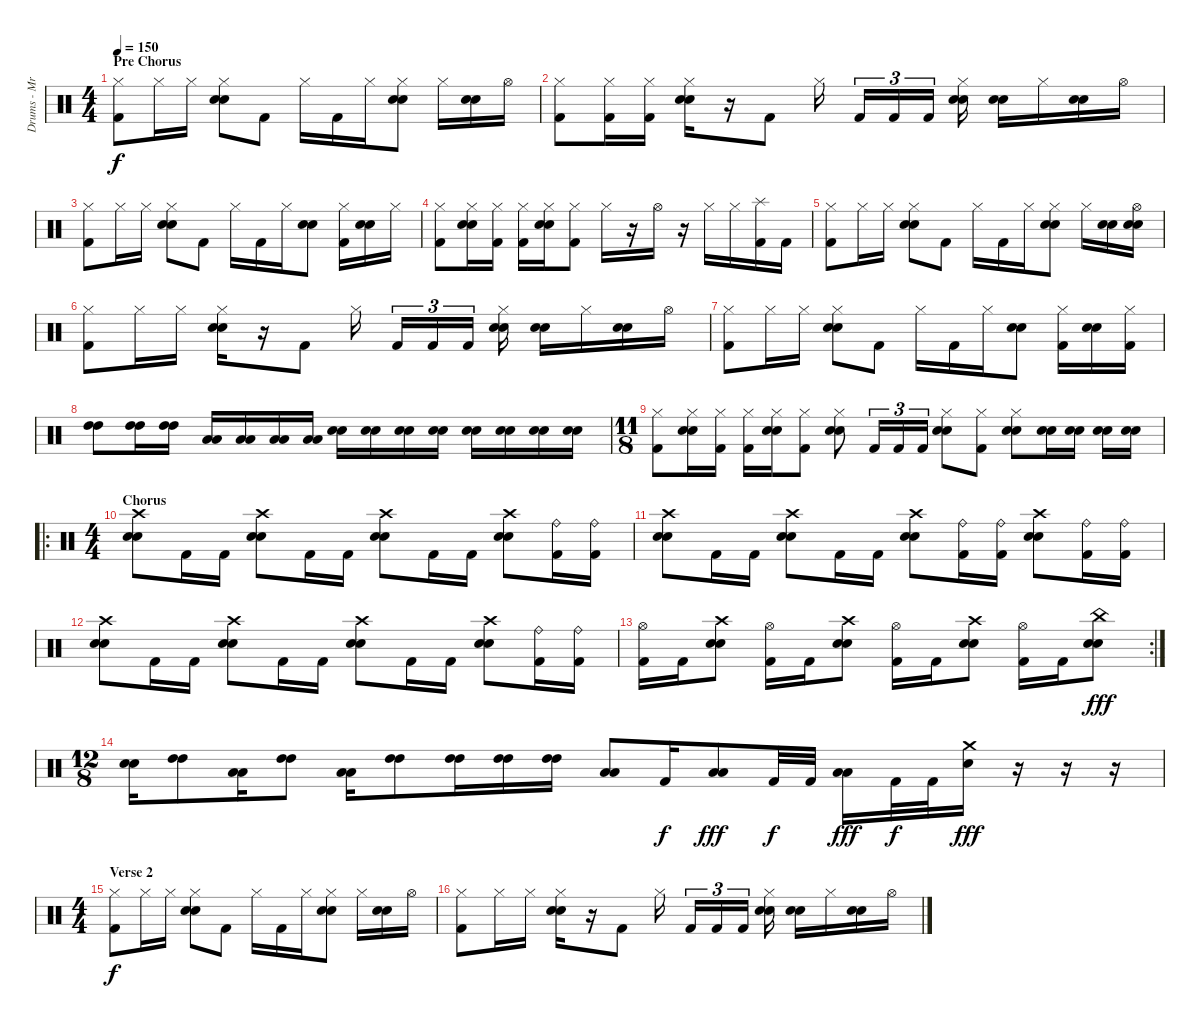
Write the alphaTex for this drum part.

\track ("Drums - Mr. Beller, Thomas" "Drums - Mr") {instrument percussion}
\staff {score}
\articulation defaults
\ts (4 4)
\section ("" "Pre Chorus")
\tempo 150
\clef neutral
\ks c
("Hi-Hat (closed)" "Kick (hit) 2").8{dy f} "Hi-Hat (closed)".16 "Hi-Hat (closed)".16 ("Hi-Hat (closed)" "Electric Snare (hit)" "Electric Snare (hit)").8 "Kick (hit) 2".8 "Hi-Hat (closed)".16 "Kick (hit) 2".16 "Hi-Hat (closed)".16 ("Hi-Hat (closed)" "Electric Snare (hit)" "Electric Snare (hit)").8 "Hi-Hat (closed)".16 ("Electric Snare (hit)" "Electric Snare (hit)").16 "Hi-Hat (open)".16 |
("Hi-Hat (closed)" "Kick (hit) 2").8 ("Hi-Hat (closed)" "Kick (hit) 2").16 ("Hi-Hat (closed)" "Kick (hit) 2").16 ("Hi-Hat (closed)" "Electric Snare (hit)" "Electric Snare (hit)").16 r.16 "Kick (hit) 2".8 "Hi-Hat (closed)".16 "Kick (hit) 2".16{tu (3 2)} "Kick (hit) 2".16{tu (3 2)} "Kick (hit) 2".16{tu (3 2)} ("Hi-Hat (closed)" "Electric Snare (hit)" "Electric Snare (hit)").16 ("Electric Snare (hit)" "Electric Snare (hit)").16 "Hi-Hat (closed)".16 ("Electric Snare (hit)" "Electric Snare (hit)").16 "Hi-Hat (open)".16 |
("Hi-Hat (closed)" "Kick (hit) 2").8 "Hi-Hat (closed)".16 "Hi-Hat (closed)".16 ("Hi-Hat (closed)" "Electric Snare (hit)" "Electric Snare (hit)").8 "Kick (hit) 2".8 "Hi-Hat (closed)".16 "Kick (hit) 2".16 "Hi-Hat (closed)".16 ("Electric Snare (hit)" "Electric Snare (hit)").8 ("Hi-Hat (closed)" "Kick (hit) 2").16 ("Electric Snare (hit)" "Electric Snare (hit)").16 "Hi-Hat (closed)".16 |
("Hi-Hat (closed)" "Kick (hit) 2").8 ("Hi-Hat (closed)" "Electric Snare (hit)" "Electric Snare (hit)").16 ("Hi-Hat (closed)" "Kick (hit) 2").16 ("Hi-Hat (closed)" "Kick (hit) 2").16 ("Hi-Hat (closed)" "Electric Snare (hit)" "Electric Snare (hit)").16 ("Hi-Hat (closed)" "Kick (hit) 2").8 "Hi-Hat (closed)".16 r.16 "Hi-Hat (open)".16 r.16 "Hi-Hat (closed)".16 "Hi-Hat (closed)".16 ("Splash (hit)" "Kick (hit) 2").16 "Kick (hit) 2".16 |
("Hi-Hat (closed)" "Kick (hit) 2").8 "Hi-Hat (closed)".16 "Hi-Hat (closed)".16 ("Hi-Hat (closed)" "Electric Snare (hit)" "Electric Snare (hit)").8 "Kick (hit) 2".8 "Hi-Hat (closed)".16 "Kick (hit) 2".16 "Hi-Hat (closed)".16 ("Hi-Hat (closed)" "Electric Snare (hit)" "Electric Snare (hit)").8 "Hi-Hat (closed)".16 ("Electric Snare (hit)" "Electric Snare (hit)").16 ("Hi-Hat (open)" "Electric Snare (hit)" "Electric Snare (hit)").16 |
("Hi-Hat (closed)" "Kick (hit) 2").8 "Hi-Hat (closed)".16 "Hi-Hat (closed)".16 ("Hi-Hat (closed)" "Electric Snare (hit)" "Electric Snare (hit)").16 r.16 "Kick (hit) 2".8 "Hi-Hat (closed)".16 "Kick (hit) 2".16{tu (3 2)} "Kick (hit) 2".16{tu (3 2)} "Kick (hit) 2".16{tu (3 2)} ("Hi-Hat (closed)" "Electric Snare (hit)" "Electric Snare (hit)").16 ("Electric Snare (hit)" "Electric Snare (hit)").16 "Hi-Hat (closed)".16 ("Electric Snare (hit)" "Electric Snare (hit)").16 "Hi-Hat (open)".16 |
("Hi-Hat (closed)" "Kick (hit) 2").8 "Hi-Hat (closed)".16 "Hi-Hat (closed)".16 ("Hi-Hat (closed)" "Electric Snare (hit)" "Electric Snare (hit)").8 "Kick (hit) 2".8 "Hi-Hat (closed)".16 "Kick (hit) 2".16 "Hi-Hat (closed)".16 ("Electric Snare (hit)" "Electric Snare (hit)").8 ("Hi-Hat (closed)" "Kick (hit) 2").16 ("Electric Snare (hit)" "Electric Snare (hit)").16 ("Hi-Hat (closed)" "Kick (hit) 2").16 |
("High Tom (hit)" "High Tom (hit)").8 ("High Tom (hit)" "High Tom (hit)").16 ("High Tom (hit)" "High Tom (hit)").16 ("Low Tom (hit)" "Low Tom (hit)").16 ("Low Tom (hit)" "Low Tom (hit)").16 ("Low Tom (hit)" "Low Tom (hit)").16 ("Low Tom (hit)" "Low Tom (hit)").16 ("Electric Snare (hit)" "Electric Snare (hit)").16 ("Electric Snare (hit)" "Electric Snare (hit)").16 ("Electric Snare (hit)" "Electric Snare (hit)").16 ("Electric Snare (hit)" "Electric Snare (hit)").16 ("Electric Snare (hit)" "Electric Snare (hit)").16 ("Electric Snare (hit)" "Electric Snare (hit)").16 ("Electric Snare (hit)" "Electric Snare (hit)").16 ("Electric Snare (hit)" "Electric Snare (hit)").16 |
\ts (11 8)
("Hi-Hat (closed)" "Kick (hit) 2").8 ("Hi-Hat (closed)" "Electric Snare (hit)" "Electric Snare (hit)").16 ("Hi-Hat (closed)" "Kick (hit) 2").16 ("Hi-Hat (closed)" "Kick (hit) 2").16 ("Hi-Hat (closed)" "Electric Snare (hit)" "Electric Snare (hit)").16 ("Hi-Hat (closed)" "Kick (hit) 2").8 ("Hi-Hat (closed)" "Electric Snare (hit)" "Electric Snare (hit)").8 "Kick (hit) 2".16{tu (3 2)} "Kick (hit) 2".16{tu (3 2)} "Kick (hit) 2".16{tu (3 2)} ("Hi-Hat (closed)" "Electric Snare (hit)" "Electric Snare (hit)").8 ("Hi-Hat (closed)" "Kick (hit) 2").8 ("Hi-Hat (closed)" "Electric Snare (hit)" "Electric Snare (hit)").8 ("Electric Snare (hit)" "Electric Snare (hit)").16 ("Electric Snare (hit)" "Electric Snare (hit)").16 ("Electric Snare (hit)" "Electric Snare (hit)").16 ("Electric Snare (hit)" "Electric Snare (hit)").16 |
\ro
\ts (4 4)
\section ("" "Chorus")
("Crash high (hit)" "Electric Snare (hit)" "Electric Snare (hit)").8 "Kick (hit) 2".16 "Kick (hit) 2".16 ("Crash high (hit)" "Electric Snare (hit)" "Electric Snare (hit)").8 "Kick (hit) 2".16 "Kick (hit) 2".16 ("Crash high (hit)" "Electric Snare (hit)" "Electric Snare (hit)").8 "Kick (hit) 2".16 "Kick (hit) 2".16 ("Crash high (hit)" "Electric Snare (hit)" "Electric Snare (hit)").8 ("Ride (bell)" "Kick (hit) 2").16 ("Ride (bell)" "Kick (hit) 2").16 |
("Crash high (hit)" "Electric Snare (hit)" "Electric Snare (hit)").8 "Kick (hit) 2".16 "Kick (hit) 2".16 ("Crash high (hit)" "Electric Snare (hit)" "Electric Snare (hit)").8 "Kick (hit) 2".16 "Kick (hit) 2".16 ("Crash high (hit)" "Electric Snare (hit)" "Electric Snare (hit)").8 ("Ride (bell)" "Kick (hit) 2").16 ("Ride (bell)" "Kick (hit) 2").16 ("Crash high (hit)" "Electric Snare (hit)" "Electric Snare (hit)").8 ("Ride (bell)" "Kick (hit) 2").16 ("Ride (bell)" "Kick (hit) 2").16 |
("Crash high (hit)" "Electric Snare (hit)" "Electric Snare (hit)").8 "Kick (hit) 2".16 "Kick (hit) 2".16 ("Crash high (hit)" "Electric Snare (hit)" "Electric Snare (hit)").8 "Kick (hit) 2".16 "Kick (hit) 2".16 ("Crash high (hit)" "Electric Snare (hit)" "Electric Snare (hit)").8 "Kick (hit) 2".16 "Kick (hit) 2".16 ("Crash high (hit)" "Electric Snare (hit)" "Electric Snare (hit)").8 ("Ride (bell)" "Kick (hit) 2").16 ("Ride (bell)" "Kick (hit) 2").16 |
\rc 2
("Hi-Hat (open)" "Kick (hit) 2").16 "Kick (hit) 2".16 ("Crash high (hit)" "Electric Snare (hit)" "Electric Snare (hit)").8 ("Hi-Hat (open)" "Kick (hit) 2").16 "Kick (hit) 2".16 ("Crash high (hit)" "Electric Snare (hit)" "Electric Snare (hit)").8 ("Hi-Hat (open)" "Kick (hit) 2").16 "Kick (hit) 2".16 ("Crash high (hit)" "Electric Snare (hit)" "Electric Snare (hit)").8 ("Hi-Hat (open)" "Kick (hit) 2").16 "Kick (hit) 2".16 ("China (hit)" "Electric Snare (hit)" "Electric Snare (hit)").8{dy fff} |
\ts (12 8)
("Electric Snare (hit)" "Electric Snare (hit)").16 ("High Tom (hit)" "High Tom (hit)").8 ("Low Tom (hit)" "Low Tom (hit)").16 ("High Tom (hit)" "High Tom (hit)").8 ("Low Tom (hit)" "Low Tom (hit)").16 ("High Tom (hit)" "High Tom (hit)").8 ("High Tom (hit)" "High Tom (hit)").16 ("High Tom (hit)" "High Tom (hit)").16 ("High Tom (hit)" "High Tom (hit)").16 ("Low Tom (hit)" "Low Tom (hit)").8 "Kick (hit) 2".16{dy f} ("Low Tom (hit)" "Low Tom (hit)").8{dy fff} "Kick (hit) 2".32{dy f} "Kick (hit) 2".32 ("Low Tom (hit)" "Low Tom (hit)").16{dy fff} "Kick (hit) 2".32{dy f} "Kick (hit) 2".32 ("Crash medium (hit)" "Electric Snare (hit)").16{dy fff} r.16 r.16 r.16 |
\ts (4 4)
\section ("" "Verse 2")
("Hi-Hat (closed)" "Kick (hit) 2").8{dy f} "Hi-Hat (closed)".16 "Hi-Hat (closed)".16 ("Hi-Hat (closed)" "Electric Snare (hit)" "Electric Snare (hit)").8 "Kick (hit) 2".8 "Hi-Hat (closed)".16 "Kick (hit) 2".16 "Hi-Hat (closed)".16 ("Hi-Hat (closed)" "Electric Snare (hit)" "Electric Snare (hit)").8 "Hi-Hat (closed)".16 ("Electric Snare (hit)" "Electric Snare (hit)").16 "Hi-Hat (open)".16 |
("Hi-Hat (closed)" "Kick (hit) 2").8 "Hi-Hat (closed)".16 "Hi-Hat (closed)".16 ("Hi-Hat (closed)" "Electric Snare (hit)" "Electric Snare (hit)").16 r.16 "Kick (hit) 2".8 "Hi-Hat (closed)".16 "Kick (hit) 2".16{tu (3 2)} "Kick (hit) 2".16{tu (3 2)} "Kick (hit) 2".16{tu (3 2)} ("Hi-Hat (closed)" "Electric Snare (hit)" "Electric Snare (hit)").16 ("Electric Snare (hit)" "Electric Snare (hit)").16 "Hi-Hat (closed)".16 ("Electric Snare (hit)" "Electric Snare (hit)").16 "Hi-Hat (open)".16
